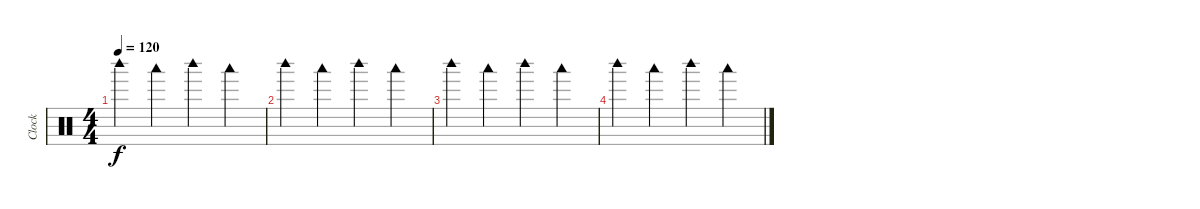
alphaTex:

\track ("Clock" "Clock") {instrument percussion}
\staff {score}
\articulation defaults
\ts (4 4)
\tempo 120
\clef neutral
\ks c "Woodblock high (hit)".4{dy f balance 16} "Woodblock low (hit)".4{balance 0} "Woodblock high (hit)".4{balance 16} "Woodblock low (hit)".4{balance 0}
|
"Woodblock high (hit)".4{balance 16} "Woodblock low (hit)".4{balance 0} "Woodblock high (hit)".4{balance 16} "Woodblock low (hit)".4{balance 0} |
"Woodblock high (hit)".4{balance 16} "Woodblock low (hit)".4{balance 0} "Woodblock high (hit)".4{balance 16} "Woodblock low (hit)".4{balance 0} |
"Woodblock high (hit)".4{balance 16} "Woodblock low (hit)".4{balance 0} "Woodblock high (hit)".4{balance 16} "Woodblock low (hit)".4{balance 0}
